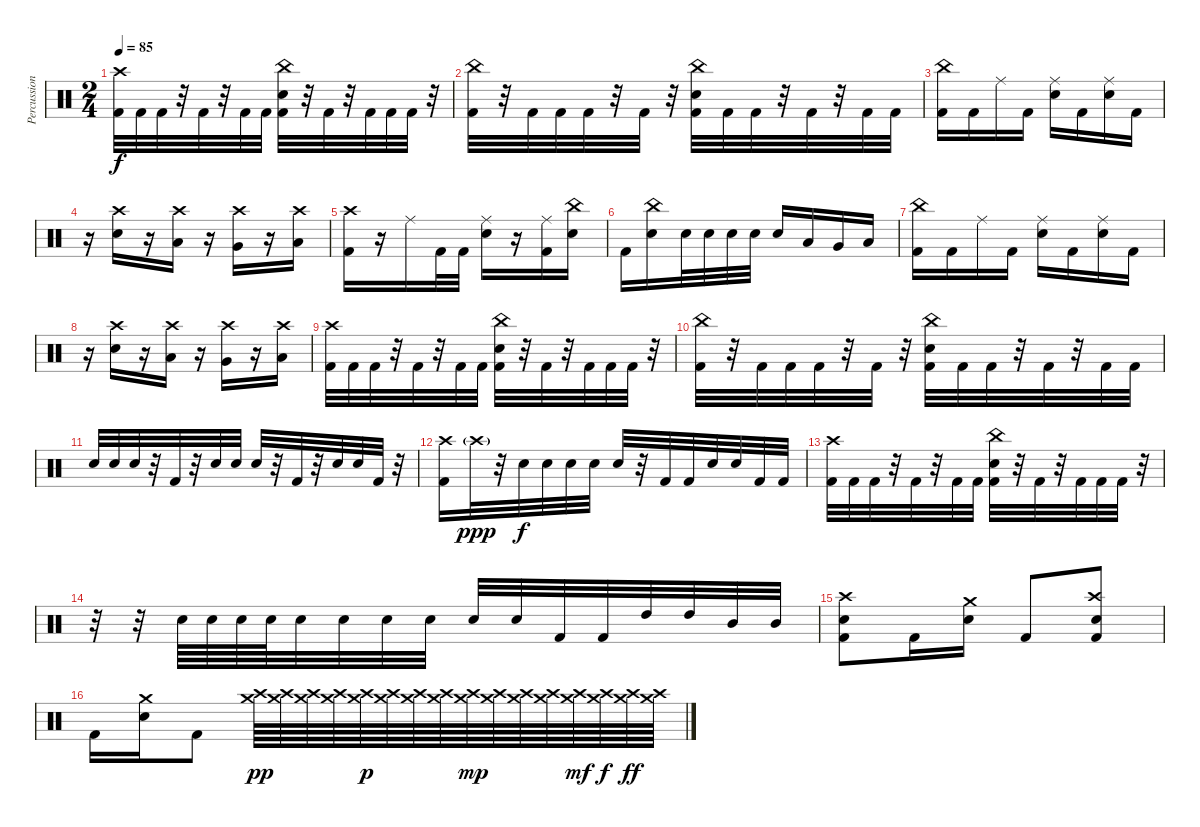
\track ("Percussion" "Percussion") {instrument percussion}
\staff {score}
\articulation defaults
\ts (2 4)
\tempo 85
\clef neutral
\ks c
("Kick (hit) 2" "Crash high (hit)").32{dy f} "Kick (hit) 2".32 "Kick (hit) 2".32 r.32 "Kick (hit) 2".32 r.32 "Kick (hit) 2".32 "Kick (hit) 2".32 ("Kick (hit) 2" "Snare (hit) 2" "China (hit)").32 r.32 "Kick (hit) 2".32 r.32 "Kick (hit) 2".32 "Kick (hit) 2".32 "Kick (hit) 2".32 r.32 |
("Kick (hit) 2" "China (hit)").32 r.32 "Kick (hit) 2".32 "Kick (hit) 2".32 "Kick (hit) 2".32 r.32 "Kick (hit) 2".32 r.32 ("Kick (hit) 2" "Snare (hit) 2" "China (hit)").32 "Kick (hit) 2".32 "Kick (hit) 2".32 r.32 "Kick (hit) 2".32 r.32 "Kick (hit) 2".32 "Kick (hit) 2".32 |
("Kick (hit) 2" "China (hit)").16 "Kick (hit) 2".16 "Ride (middle)".16 "Kick (hit) 2".16 ("Snare (hit) 2" "Ride (middle)").16 "Kick (hit) 2".16 ("Snare (hit) 2" "Ride (middle)").16 "Kick (hit) 2".16 |
r.16 ("Crash high (hit)" "Snare (hit) 2").16 r.16 ("Crash high (hit)" "Low Tom (hit)").16 r.16 ("Crash high (hit)" "Very Low Tom (hit)").16 r.16 ("Crash high (hit)" "Low Floor Tom (hit)").16 |
("Kick (hit) 2" "Crash high (hit)").16 r.16 "Ride (middle)".16 "Kick (hit) 2".32 "Kick (hit) 2".32 ("Snare (hit) 2" "Ride (middle)").16 r.16 ("Ride (middle)" "Kick (hit) 2").16 ("China (hit)" "Snare (hit) 2").16 |
"Kick (hit) 2".16 ("China (hit)" "Snare (hit) 2").16 "Snare (hit) 2".32 "Snare (hit) 2".32 "Snare (hit) 2".32 "Snare (hit) 2".32 "Snare (hit) 2".16 "Low Tom (hit)".16 "Very Low Tom (hit)".16 "Low Floor Tom (hit)".16 |
("Kick (hit) 2" "China (hit)").16 "Kick (hit) 2".16 "Ride (middle)".16 "Kick (hit) 2".16 ("Snare (hit) 2" "Ride (middle)").16 "Kick (hit) 2".16 ("Snare (hit) 2" "Ride (middle)").16 "Kick (hit) 2".16 |
r.16 ("Crash high (hit)" "Snare (hit) 2").16 r.16 ("Crash high (hit)" "Low Tom (hit)").16 r.16 ("Crash high (hit)" "Very Low Tom (hit)").16 r.16 ("Crash high (hit)" "Low Floor Tom (hit)").16 |
("Kick (hit) 2" "Crash high (hit)").32 "Kick (hit) 2".32 "Kick (hit) 2".32 r.32 "Kick (hit) 2".32 r.32 "Kick (hit) 2".32 "Kick (hit) 2".32 ("Kick (hit) 2" "Snare (hit) 2" "China (hit)").32 r.32 "Kick (hit) 2".32 r.32 "Kick (hit) 2".32 "Kick (hit) 2".32 "Kick (hit) 2".32 r.32 |
("Kick (hit) 2" "China (hit)").32 r.32 "Kick (hit) 2".32 "Kick (hit) 2".32 "Kick (hit) 2".32 r.32 "Kick (hit) 2".32 r.32 ("Kick (hit) 2" "Snare (hit) 2" "China (hit)").32 "Kick (hit) 2".32 "Kick (hit) 2".32 r.32 "Kick (hit) 2".32 r.32 "Kick (hit) 2".32 "Kick (hit) 2".32 |
"Snare (hit) 2".32 "Snare (hit) 2".32 "Snare (hit) 2".32 r.32 "Kick (hit) 2".32 r.32 "Snare (hit) 2".32 "Snare (hit) 2".32 "Snare (hit) 2".32 r.32 "Kick (hit) 2".32 r.32 "Snare (hit) 2".32 "Snare (hit) 2".32 "Kick (hit) 2".32 r.32 |
("Crash high (hit)" "Kick (hit) 2").16 "Crash high (hit)"{g}.32{dy ppp} r.32 "Snare (hit) 2".32{dy f} "Snare (hit) 2".32 "Snare (hit) 2".32 "Snare (hit) 2".32 "Snare (hit) 2".32 r.32 "Kick (hit) 2".32 "Kick (hit) 2".32 "Snare (hit) 2".32 "Snare (hit) 2".32 "Kick (hit) 2".32 "Kick (hit) 2".32 |
("Kick (hit) 2" "Crash high (hit)").32 "Kick (hit) 2".32 "Kick (hit) 2".32 r.32 "Kick (hit) 2".32 r.32 "Kick (hit) 2".32 "Kick (hit) 2".32 ("Kick (hit) 2" "Snare (hit) 2" "China (hit)").32 r.32 "Kick (hit) 2".32 r.32 "Kick (hit) 2".32 "Kick (hit) 2".32 "Kick (hit) 2".32 r.32 |
r.32 r.32 "Snare (hit) 2".64 "Snare (hit) 2".64 "Snare (hit) 2".64 "Snare (hit) 2".64 "Snare (hit) 2".32 "Snare (hit) 2".32 "Snare (hit) 2".32 "Snare (hit) 2".32 "Snare (hit) 2".32 "Snare (hit) 2".32 "Kick (hit) 2".32 "Kick (hit) 2".32 "High Tom (hit)".32 "High Tom (hit)".32 "Mid Tom (hit)".32 "Mid Tom (hit)".32 |
("Kick (hit) 2" "Crash high (hit)" "Snare (hit) 2").8 "Kick (hit) 2".16 ("Crash medium (hit)" "Snare (hit) 2").16 "Kick (hit) 2".8 ("Kick (hit) 2" "Crash high (hit)" "Snare (hit) 2").8 |
"Kick (hit) 2".16 ("Crash medium (hit)" "Snare (hit) 2").16 "Kick (hit) 2".8 ("Crash high (hit)" "Crash medium (hit)").64{dy pp} ("Crash high (hit)" "Crash medium (hit)").64 ("Crash high (hit)" "Crash medium (hit)").64 ("Crash high (hit)" "Crash medium (hit)").64 ("Crash high (hit)" "Crash medium (hit)").64{dy p} ("Crash high (hit)" "Crash medium (hit)").64 ("Crash high (hit)" "Crash medium (hit)").64 ("Crash high (hit)" "Crash medium (hit)").64 ("Crash high (hit)" "Crash medium (hit)").64{dy mp} ("Crash high (hit)" "Crash medium (hit)").64 ("Crash high (hit)" "Crash medium (hit)").64 ("Crash high (hit)" "Crash medium (hit)").64 ("Crash high (hit)" "Crash medium (hit)").64{dy mf} ("Crash high (hit)" "Crash medium (hit)").64{dy f} ("Crash high (hit)" "Crash medium (hit)").64{dy ff} ("Crash high (hit)" "Crash medium (hit)").64
